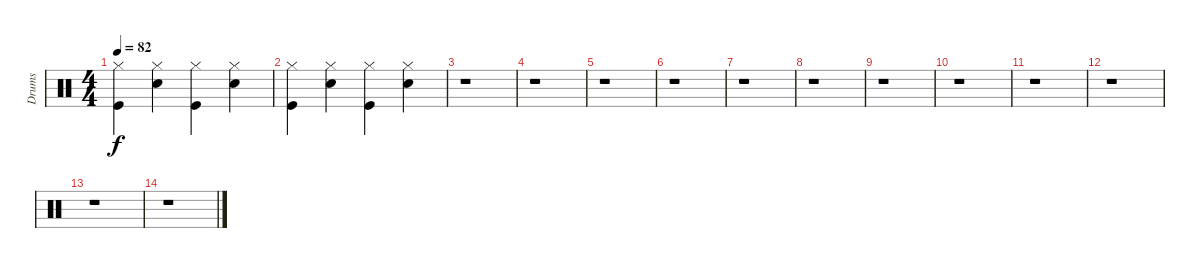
\track ("Drums" "Drums") {instrument percussion}
\staff {score}
\articulation defaults
\ts (4 4)
\tempo 82
\clef neutral
\ks c
("Hi-Hat (closed)" "Kick (hit)").4{dy f} ("Hi-Hat (closed)" "Snare (hit) 2").4 ("Hi-Hat (closed)" "Kick (hit)").4 ("Hi-Hat (closed)" "Snare (hit) 2").4 |
("Hi-Hat (closed)" "Kick (hit)").4 ("Hi-Hat (closed)" "Snare (hit) 2").4 ("Hi-Hat (closed)" "Kick (hit)").4 ("Hi-Hat (closed)" "Snare (hit) 2").4 |
r.1 |
r.1 |
r.1 |
r.1 |
r.1 |
r.1 |
r.1 |
r.1 |
r.1 |
r.1 |
r.1 |
r.1
